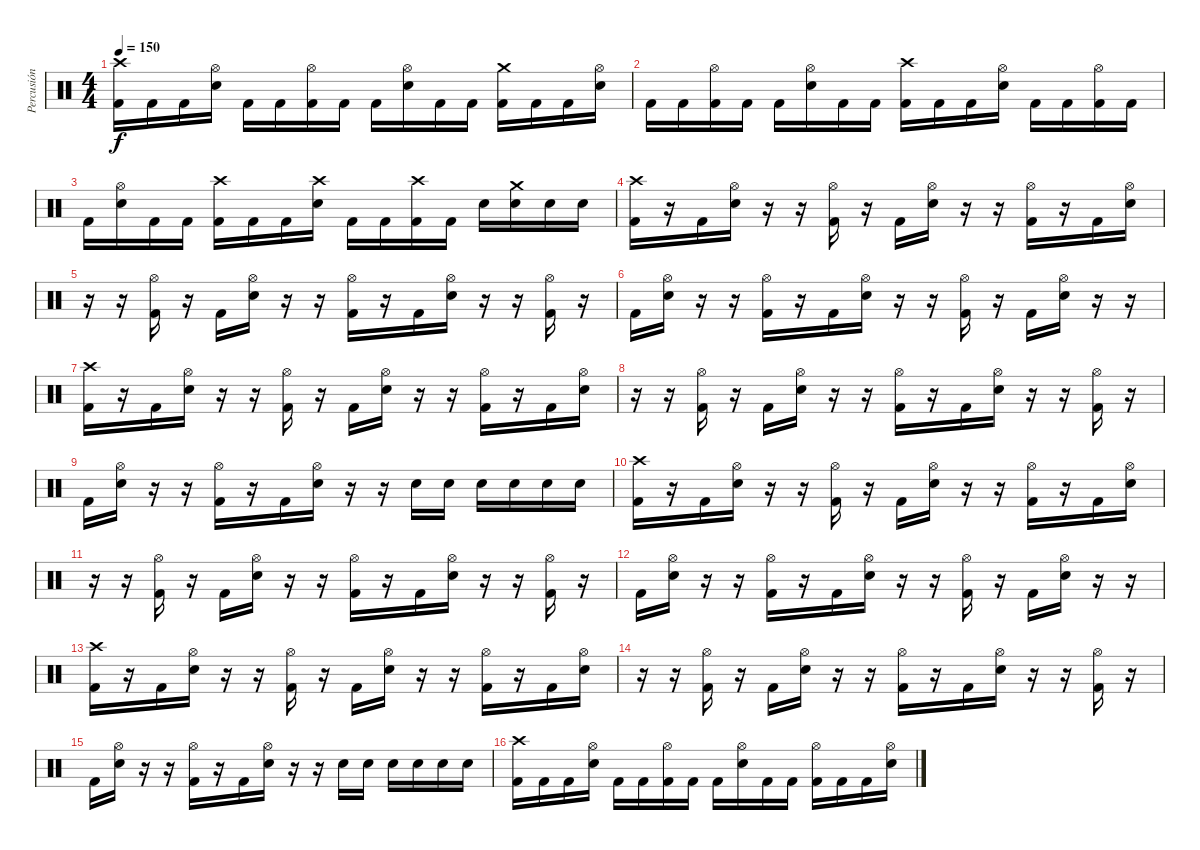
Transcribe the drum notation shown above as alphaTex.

\track ("Percusión" "Percusión") {instrument percussion}
\staff {score}
\articulation defaults
\ts (4 4)
\tempo 150
\clef neutral
\ks c
("Crash high (hit)" "Kick (hit) 2").16{dy f} "Kick (hit) 2".16 "Kick (hit) 2".16 ("Hi-Hat (open)" "Electric Snare (hit)").16 "Kick (hit) 2".16 "Kick (hit) 2".16 ("Hi-Hat (open)" "Kick (hit) 2").16 "Kick (hit) 2".16 "Kick (hit) 2".16 ("Hi-Hat (open)" "Electric Snare (hit)").16 "Kick (hit) 2".16 "Kick (hit) 2".16 ("Crash medium (hit)" "Kick (hit) 2").16 "Kick (hit) 2".16 "Kick (hit) 2".16 ("Hi-Hat (open)" "Electric Snare (hit)").16 |
"Kick (hit) 2".16 "Kick (hit) 2".16 ("Hi-Hat (open)" "Kick (hit) 2").16 "Kick (hit) 2".16 "Kick (hit) 2".16 ("Hi-Hat (open)" "Electric Snare (hit)").16 "Kick (hit) 2".16 "Kick (hit) 2".16 ("Crash high (hit)" "Kick (hit) 2").16 "Kick (hit) 2".16 "Kick (hit) 2".16 ("Hi-Hat (open)" "Electric Snare (hit)").16 "Kick (hit) 2".16 "Kick (hit) 2".16 ("Hi-Hat (open)" "Kick (hit) 2").16 "Kick (hit) 2".16 |
"Kick (hit) 2".16 ("Hi-Hat (open)" "Electric Snare (hit)").16 "Kick (hit) 2".16 "Kick (hit) 2".16 ("Crash high (hit)" "Kick (hit) 2").16 "Kick (hit) 2".16 "Kick (hit) 2".16 ("Crash high (hit)" "Electric Snare (hit)").16 "Kick (hit) 2".16 "Kick (hit) 2".16 ("Crash high (hit)" "Kick (hit) 2").16 "Kick (hit) 2".16 "Electric Snare (hit)".16 ("Crash medium (hit)" "Electric Snare (hit)").16 "Electric Snare (hit)".16 "Electric Snare (hit)".16 |
("Crash high (hit)" "Kick (hit) 2").16 r.16 "Kick (hit) 2".16 ("Hi-Hat (open)" "Electric Snare (hit)").16 r.16 r.16 ("Hi-Hat (open)" "Kick (hit) 2").16 r.16 "Kick (hit) 2".16 ("Hi-Hat (open)" "Electric Snare (hit)").16 r.16 r.16 ("Hi-Hat (open)" "Kick (hit) 2").16 r.16 "Kick (hit) 2".16 ("Hi-Hat (open)" "Electric Snare (hit)").16 |
r.16 r.16 ("Hi-Hat (open)" "Kick (hit) 2").16 r.16 "Kick (hit) 2".16 ("Hi-Hat (open)" "Electric Snare (hit)").16 r.16 r.16 ("Hi-Hat (open)" "Kick (hit) 2").16 r.16 "Kick (hit) 2".16 ("Hi-Hat (open)" "Electric Snare (hit)").16 r.16 r.16 ("Hi-Hat (open)" "Kick (hit) 2").16 r.16 |
"Kick (hit) 2".16 ("Hi-Hat (open)" "Electric Snare (hit)").16 r.16 r.16 ("Hi-Hat (open)" "Kick (hit) 2").16 r.16 "Kick (hit) 2".16 ("Hi-Hat (open)" "Electric Snare (hit)").16 r.16 r.16 ("Hi-Hat (open)" "Kick (hit) 2").16 r.16 "Kick (hit) 2".16 ("Hi-Hat (open)" "Electric Snare (hit)").16 r.16 r.16 |
("Crash high (hit)" "Kick (hit) 2").16 r.16 "Kick (hit) 2".16 ("Hi-Hat (open)" "Electric Snare (hit)").16 r.16 r.16 ("Hi-Hat (open)" "Kick (hit) 2").16 r.16 "Kick (hit) 2".16 ("Hi-Hat (open)" "Electric Snare (hit)").16 r.16 r.16 ("Hi-Hat (open)" "Kick (hit) 2").16 r.16 "Kick (hit) 2".16 ("Hi-Hat (open)" "Electric Snare (hit)").16 |
r.16 r.16 ("Hi-Hat (open)" "Kick (hit) 2").16 r.16 "Kick (hit) 2".16 ("Hi-Hat (open)" "Electric Snare (hit)").16 r.16 r.16 ("Hi-Hat (open)" "Kick (hit) 2").16 r.16 "Kick (hit) 2".16 ("Hi-Hat (open)" "Electric Snare (hit)").16 r.16 r.16 ("Hi-Hat (open)" "Kick (hit) 2").16 r.16 |
"Kick (hit) 2".16 ("Hi-Hat (open)" "Electric Snare (hit)").16 r.16 r.16 ("Hi-Hat (open)" "Kick (hit) 2").16 r.16 "Kick (hit) 2".16 ("Hi-Hat (open)" "Electric Snare (hit)").16 r.16 r.16 "Electric Snare (hit)".16 "Electric Snare (hit)".16 "Electric Snare (hit)".16 "Electric Snare (hit)".16 "Electric Snare (hit)".16 "Electric Snare (hit)".16 |
("Crash high (hit)" "Kick (hit) 2").16 r.16 "Kick (hit) 2".16 ("Hi-Hat (open)" "Electric Snare (hit)").16 r.16 r.16 ("Hi-Hat (open)" "Kick (hit) 2").16 r.16 "Kick (hit) 2".16 ("Hi-Hat (open)" "Electric Snare (hit)").16 r.16 r.16 ("Hi-Hat (open)" "Kick (hit) 2").16 r.16 "Kick (hit) 2".16 ("Hi-Hat (open)" "Electric Snare (hit)").16 |
r.16 r.16 ("Hi-Hat (open)" "Kick (hit) 2").16 r.16 "Kick (hit) 2".16 ("Hi-Hat (open)" "Electric Snare (hit)").16 r.16 r.16 ("Hi-Hat (open)" "Kick (hit) 2").16 r.16 "Kick (hit) 2".16 ("Hi-Hat (open)" "Electric Snare (hit)").16 r.16 r.16 ("Hi-Hat (open)" "Kick (hit) 2").16 r.16 |
"Kick (hit) 2".16 ("Hi-Hat (open)" "Electric Snare (hit)").16 r.16 r.16 ("Hi-Hat (open)" "Kick (hit) 2").16 r.16 "Kick (hit) 2".16 ("Hi-Hat (open)" "Electric Snare (hit)").16 r.16 r.16 ("Hi-Hat (open)" "Kick (hit) 2").16 r.16 "Kick (hit) 2".16 ("Hi-Hat (open)" "Electric Snare (hit)").16 r.16 r.16 |
("Crash high (hit)" "Kick (hit) 2").16 r.16 "Kick (hit) 2".16 ("Hi-Hat (open)" "Electric Snare (hit)").16 r.16 r.16 ("Hi-Hat (open)" "Kick (hit) 2").16 r.16 "Kick (hit) 2".16 ("Hi-Hat (open)" "Electric Snare (hit)").16 r.16 r.16 ("Hi-Hat (open)" "Kick (hit) 2").16 r.16 "Kick (hit) 2".16 ("Hi-Hat (open)" "Electric Snare (hit)").16 |
r.16 r.16 ("Hi-Hat (open)" "Kick (hit) 2").16 r.16 "Kick (hit) 2".16 ("Hi-Hat (open)" "Electric Snare (hit)").16 r.16 r.16 ("Hi-Hat (open)" "Kick (hit) 2").16 r.16 "Kick (hit) 2".16 ("Hi-Hat (open)" "Electric Snare (hit)").16 r.16 r.16 ("Hi-Hat (open)" "Kick (hit) 2").16 r.16 |
"Kick (hit) 2".16 ("Hi-Hat (open)" "Electric Snare (hit)").16 r.16 r.16 ("Hi-Hat (open)" "Kick (hit) 2").16 r.16 "Kick (hit) 2".16 ("Hi-Hat (open)" "Electric Snare (hit)").16 r.16 r.16 "Electric Snare (hit)".16 "Electric Snare (hit)".16 "Electric Snare (hit)".16 "Electric Snare (hit)".16 "Electric Snare (hit)".16 "Electric Snare (hit)".16 |
("Crash high (hit)" "Kick (hit) 2").16 "Kick (hit) 2".16 "Kick (hit) 2".16 ("Hi-Hat (open)" "Electric Snare (hit)").16 "Kick (hit) 2".16 "Kick (hit) 2".16 ("Hi-Hat (open)" "Kick (hit) 2").16 "Kick (hit) 2".16 "Kick (hit) 2".16 ("Hi-Hat (open)" "Electric Snare (hit)").16 "Kick (hit) 2".16 "Kick (hit) 2".16 ("Hi-Hat (open)" "Kick (hit) 2").16 "Kick (hit) 2".16 "Kick (hit) 2".16 ("Hi-Hat (open)" "Electric Snare (hit)").16
